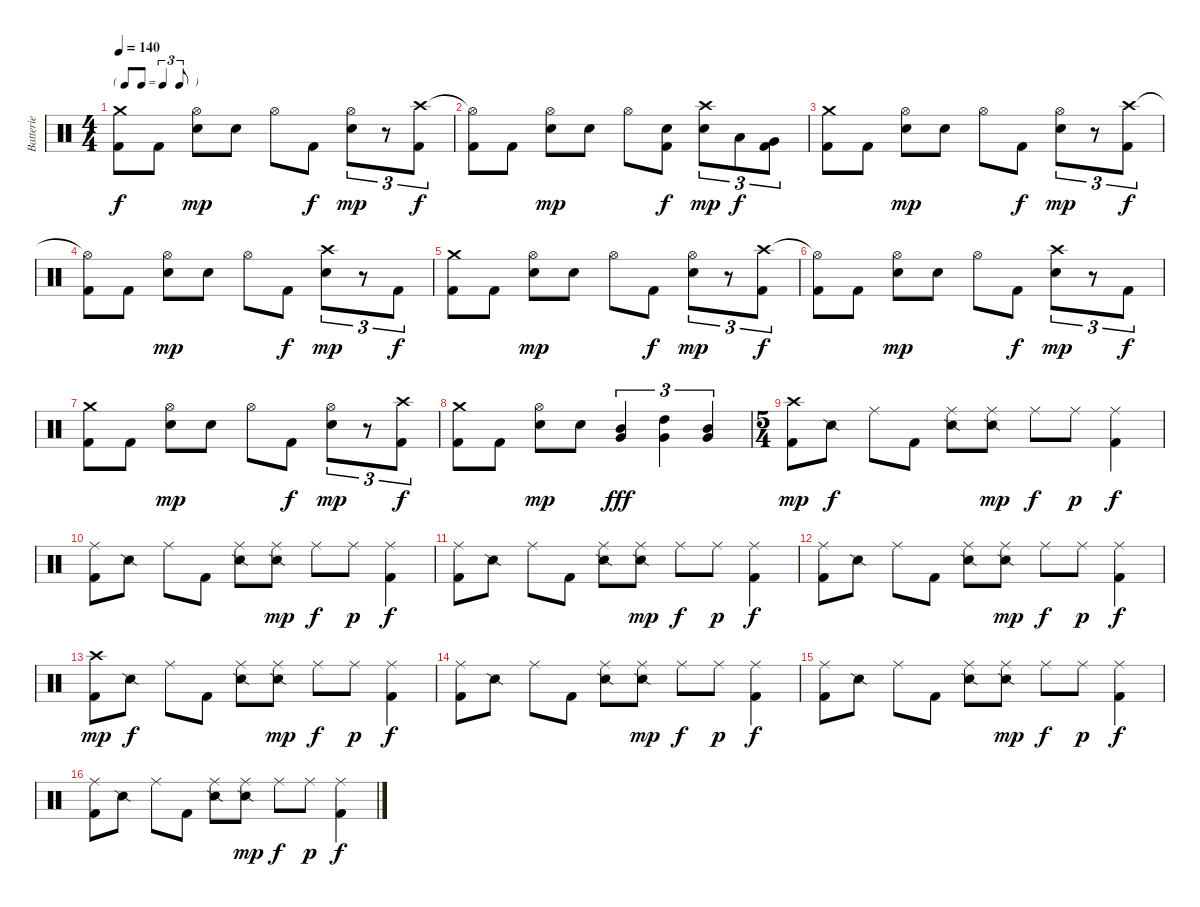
\track ("Batterie" "Batterie") {instrument percussion}
\staff {score}
\articulation defaults
\ts (4 4)
\tf triplet8th
\tempo 140
\clef neutral
\ks c
("Crash medium (hit)" "Kick (hit) 2").8{dy f} "Kick (hit) 2".8 ("Hi-Hat (open)" "Electric Snare (hit)").8{dy mp} "Electric Snare (hit)".8 "Hi-Hat (open)".8 "Kick (hit) 2".8{dy f} ("Hi-Hat (open)" "Electric Snare (hit)").8{tu (3 2) dy mp} r.8{tu (3 2)} ("Crash high (hit)" "Kick (hit) 2").8{tu (3 2) dy f} |
("Hi-Hat (open)"{t} "Kick (hit) 2").8 "Kick (hit) 2".8 ("Hi-Hat (open)" "Electric Snare (hit)").8{dy mp} "Electric Snare (hit)".8 "Hi-Hat (open)".8 ("Electric Snare (hit)" "Kick (hit) 2").8{dy f} ("Crash high (hit)" "Electric Snare (hit)").8{tu (3 2) dy mp} "Low Tom (hit)".8{tu (3 2) dy f} ("Very Low Tom (hit)" "Kick (hit) 2").8{tu (3 2)} |
("Crash medium (hit)" "Kick (hit) 2").8 "Kick (hit) 2".8 ("Hi-Hat (open)" "Electric Snare (hit)").8{dy mp} "Electric Snare (hit)".8 "Hi-Hat (open)".8 "Kick (hit) 2".8{dy f} ("Hi-Hat (open)" "Electric Snare (hit)").8{tu (3 2) dy mp} r.8{tu (3 2)} ("Crash high (hit)" "Kick (hit) 2").8{tu (3 2) dy f} |
("Hi-Hat (open)"{t} "Kick (hit) 2").8 "Kick (hit) 2".8 ("Hi-Hat (open)" "Electric Snare (hit)").8{dy mp} "Electric Snare (hit)".8 "Hi-Hat (open)".8 "Kick (hit) 2".8{dy f} ("Crash high (hit)" "Electric Snare (hit)").8{tu (3 2) dy mp} r.8{tu (3 2)} "Kick (hit) 2".8{tu (3 2) dy f} |
("Crash medium (hit)" "Kick (hit) 2").8 "Kick (hit) 2".8 ("Hi-Hat (open)" "Electric Snare (hit)").8{dy mp} "Electric Snare (hit)".8 "Hi-Hat (open)".8 "Kick (hit) 2".8{dy f} ("Hi-Hat (open)" "Electric Snare (hit)").8{tu (3 2) dy mp} r.8{tu (3 2)} ("Crash high (hit)" "Kick (hit) 2").8{tu (3 2) dy f} |
("Hi-Hat (open)"{t} "Kick (hit) 2").8 "Kick (hit) 2".8 ("Hi-Hat (open)" "Electric Snare (hit)").8{dy mp} "Electric Snare (hit)".8 "Hi-Hat (open)".8 "Kick (hit) 2".8{dy f} ("Crash high (hit)" "Electric Snare (hit)").8{tu (3 2) dy mp} r.8{tu (3 2)} "Kick (hit) 2".8{tu (3 2) dy f} |
("Crash medium (hit)" "Kick (hit) 2").8 "Kick (hit) 2".8 ("Hi-Hat (open)" "Electric Snare (hit)").8{dy mp} "Electric Snare (hit)".8 "Hi-Hat (open)".8 "Kick (hit) 2".8{dy f} ("Hi-Hat (open)" "Electric Snare (hit)").8{tu (3 2) dy mp} r.8{tu (3 2)} ("Crash high (hit)" "Kick (hit) 2").8{tu (3 2) dy f} |
("Crash medium (hit)" "Kick (hit) 2").8 "Kick (hit) 2".8 ("Hi-Hat (open)" "Electric Snare (hit)").8{dy mp} "Electric Snare (hit)".8 ("Mid Tom (hit)" "Very Low Tom (hit)").4{tu (3 2) dy fff} ("High Tom (hit)" "Very Low Tom (hit)").4{tu (3 2)} ("Mid Tom (hit)" "Very Low Tom (hit)").4{tu (3 2)} |
\ts (5 4)
("Crash high (hit)" "Kick (hit) 2").8{dy mp} "Snare (side stick) 2".8{dy f} "Ride (middle)".8 "Kick (hit) 2".8 ("Ride (middle)" "Snare (side stick) 2").8 ("Ride (middle)" "Snare (side stick) 2").8{dy mp} "Ride (middle)".8{dy f} "Ride (middle)".8{dy p} ("Ride (middle)" "Kick (hit) 2").4{dy f} |
("Ride (middle)" "Kick (hit) 2").8 "Snare (side stick) 2".8 "Ride (middle)".8 "Kick (hit) 2".8 ("Ride (middle)" "Snare (side stick) 2").8 ("Ride (middle)" "Snare (side stick) 2").8{dy mp} "Ride (middle)".8{dy f} "Ride (middle)".8{dy p} ("Ride (middle)" "Kick (hit) 2").4{dy f} |
("Ride (middle)" "Kick (hit) 2").8 "Snare (side stick) 2".8 "Ride (middle)".8 "Kick (hit) 2".8 ("Ride (middle)" "Snare (side stick) 2").8 ("Ride (middle)" "Snare (side stick) 2").8{dy mp} "Ride (middle)".8{dy f} "Ride (middle)".8{dy p} ("Ride (middle)" "Kick (hit) 2").4{dy f} |
("Ride (middle)" "Kick (hit) 2").8 "Snare (side stick) 2".8 "Ride (middle)".8 "Kick (hit) 2".8 ("Ride (middle)" "Snare (side stick) 2").8 ("Ride (middle)" "Snare (side stick) 2").8{dy mp} "Ride (middle)".8{dy f} "Ride (middle)".8{dy p} ("Ride (middle)" "Kick (hit) 2").4{dy f} |
("Crash high (hit)" "Kick (hit) 2").8{dy mp} "Snare (side stick) 2".8{dy f} "Ride (middle)".8 "Kick (hit) 2".8 ("Ride (middle)" "Snare (side stick) 2").8 ("Ride (middle)" "Snare (side stick) 2").8{dy mp} "Ride (middle)".8{dy f} "Ride (middle)".8{dy p} ("Ride (middle)" "Kick (hit) 2").4{dy f} |
("Ride (middle)" "Kick (hit) 2").8 "Snare (side stick) 2".8 "Ride (middle)".8 "Kick (hit) 2".8 ("Ride (middle)" "Snare (side stick) 2").8 ("Ride (middle)" "Snare (side stick) 2").8{dy mp} "Ride (middle)".8{dy f} "Ride (middle)".8{dy p} ("Ride (middle)" "Kick (hit) 2").4{dy f} |
("Ride (middle)" "Kick (hit) 2").8 "Snare (side stick) 2".8 "Ride (middle)".8 "Kick (hit) 2".8 ("Ride (middle)" "Snare (side stick) 2").8 ("Ride (middle)" "Snare (side stick) 2").8{dy mp} "Ride (middle)".8{dy f} "Ride (middle)".8{dy p} ("Ride (middle)" "Kick (hit) 2").4{dy f} |
("Ride (middle)" "Kick (hit) 2").8 "Snare (side stick) 2".8 "Ride (middle)".8 "Kick (hit) 2".8 ("Ride (middle)" "Snare (side stick) 2").8 ("Ride (middle)" "Snare (side stick) 2").8{dy mp} "Ride (middle)".8{dy f} "Ride (middle)".8{dy p} ("Ride (middle)" "Kick (hit) 2").4{dy f}
